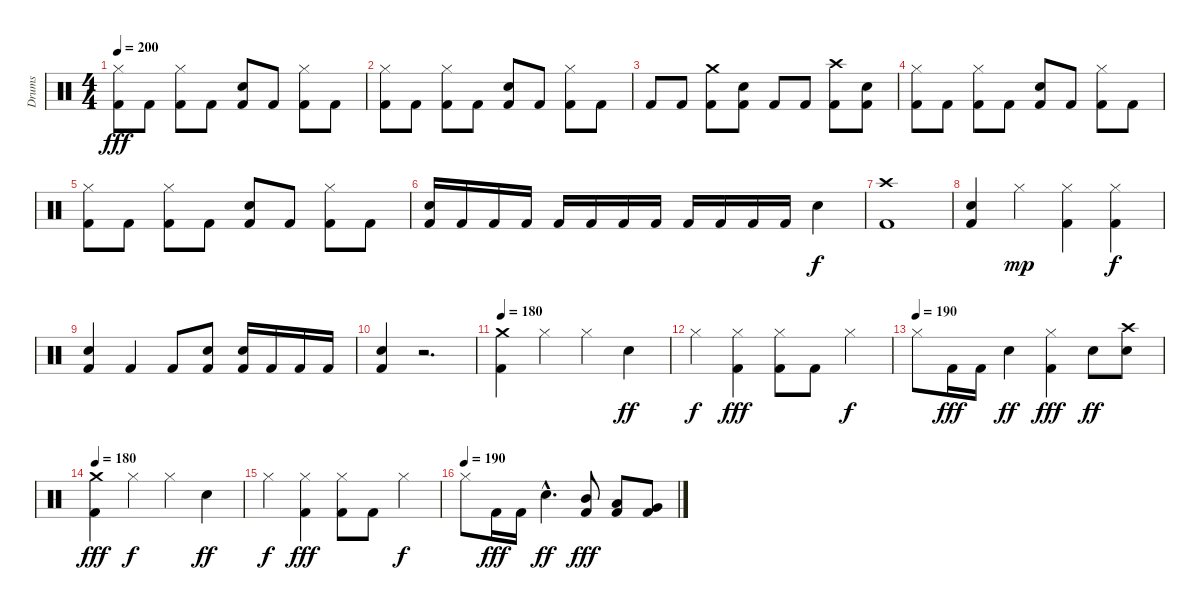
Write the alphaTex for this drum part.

\track ("Drums" "Drums") {instrument percussion}
\staff {score}
\articulation defaults
\ts (4 4)
\tempo 200
\clef neutral
\ks c
("Hi-Hat (closed)" "Kick (hit) 2").8{dy fff} "Kick (hit) 2".8 ("Hi-Hat (closed)" "Kick (hit) 2").8 "Kick (hit) 2".8 ("Electric Snare (hit)" "Kick (hit) 2").8 "Kick (hit) 2".8 ("Hi-Hat (closed)" "Kick (hit) 2").8 "Kick (hit) 2".8 |
("Hi-Hat (closed)" "Kick (hit) 2").8 "Kick (hit) 2".8 ("Hi-Hat (closed)" "Kick (hit) 2").8 "Kick (hit) 2".8 ("Electric Snare (hit)" "Kick (hit) 2").8 "Kick (hit) 2".8 ("Hi-Hat (closed)" "Kick (hit) 2").8 "Kick (hit) 2".8 |
"Kick (hit) 2".8 "Kick (hit) 2".8 ("Crash medium (hit)" "Kick (hit) 2").8 ("Electric Snare (hit)" "Kick (hit) 2").8 "Kick (hit) 2".8 "Kick (hit) 2".8 ("Crash high (hit)" "Kick (hit) 2").8 ("Electric Snare (hit)" "Kick (hit) 2").8 |
("Hi-Hat (closed)" "Kick (hit) 2").8 "Kick (hit) 2".8 ("Hi-Hat (closed)" "Kick (hit) 2").8 "Kick (hit) 2".8 ("Electric Snare (hit)" "Kick (hit) 2").8 "Kick (hit) 2".8 ("Hi-Hat (closed)" "Kick (hit) 2").8 "Kick (hit) 2".8 |
("Hi-Hat (closed)" "Kick (hit) 2").8 "Kick (hit) 2".8 ("Hi-Hat (closed)" "Kick (hit) 2").8 "Kick (hit) 2".8 ("Electric Snare (hit)" "Kick (hit) 2").8 "Kick (hit) 2".8 ("Hi-Hat (closed)" "Kick (hit) 2").8 "Kick (hit) 2".8 |
("Electric Snare (hit)" "Kick (hit) 2").16 "Kick (hit) 2".16 "Kick (hit) 2".16 "Kick (hit) 2".16 "Kick (hit) 2".16 "Kick (hit) 2".16 "Kick (hit) 2".16 "Kick (hit) 2".16 "Kick (hit) 2".16 "Kick (hit) 2".16 "Kick (hit) 2".16 "Kick (hit) 2".16 "Electric Snare (hit)".4{dy f} |
("Crash high (hit)" "Kick (hit) 2").1 |
("Electric Snare (hit)" "Kick (hit) 2").4 "Hi-Hat (closed)".4{dy mp} ("Hi-Hat (closed)" "Kick (hit) 2").4 ("Hi-Hat (closed)" "Kick (hit) 2").4{dy f} |
("Electric Snare (hit)" "Kick (hit) 2").4 "Kick (hit) 2".4 "Kick (hit) 2".8 ("Electric Snare (hit)" "Kick (hit) 2").8 ("Electric Snare (hit)" "Kick (hit) 2").16 "Kick (hit) 2".16 "Kick (hit) 2".16 "Kick (hit) 2".16 |
("Electric Snare (hit)" "Kick (hit) 2").4 r.2{d} |
\tempo 180
("Crash medium (hit)" "Kick (hit) 2").4 "Hi-Hat (closed)".4 "Hi-Hat (closed)".4 "Electric Snare (hit)".4{dy ff} |
"Hi-Hat (closed)".4{dy f} ("Hi-Hat (closed)" "Kick (hit) 2").4{dy fff} ("Hi-Hat (closed)" "Kick (hit) 2").8 "Kick (hit) 2".8 "Hi-Hat (closed)".4{dy f} |
\tempo (190)
"Hi-Hat (closed)".8 "Kick (hit) 2".16{dy fff} "Kick (hit) 2".16 "Electric Snare (hit)".4{dy ff} ("Hi-Hat (closed)" "Kick (hit) 2").4{dy fff} "Electric Snare (hit)".8{dy ff} ("Crash high (hit)" "Electric Snare (hit)").8 |
\tempo 180
("Crash medium (hit)" "Kick (hit) 2").4{dy fff} "Hi-Hat (closed)".4{dy f} "Hi-Hat (closed)".4 "Electric Snare (hit)".4{dy ff} |
"Hi-Hat (closed)".4{dy f} ("Hi-Hat (closed)" "Kick (hit) 2").4{dy fff} ("Hi-Hat (closed)" "Kick (hit) 2").8 "Kick (hit) 2".8 "Hi-Hat (closed)".4{dy f} |
\tempo (190)
"Hi-Hat (closed)".8 "Kick (hit) 2".16{dy fff} "Kick (hit) 2".16 "Electric Snare (hit)"{hac}.4{d dy ff} ("Mid Tom (hit)" "Kick (hit) 2").8{dy fff} ("Low Tom (hit)" "Kick (hit) 2").8 ("Very Low Tom (hit)" "Kick (hit) 2").8
